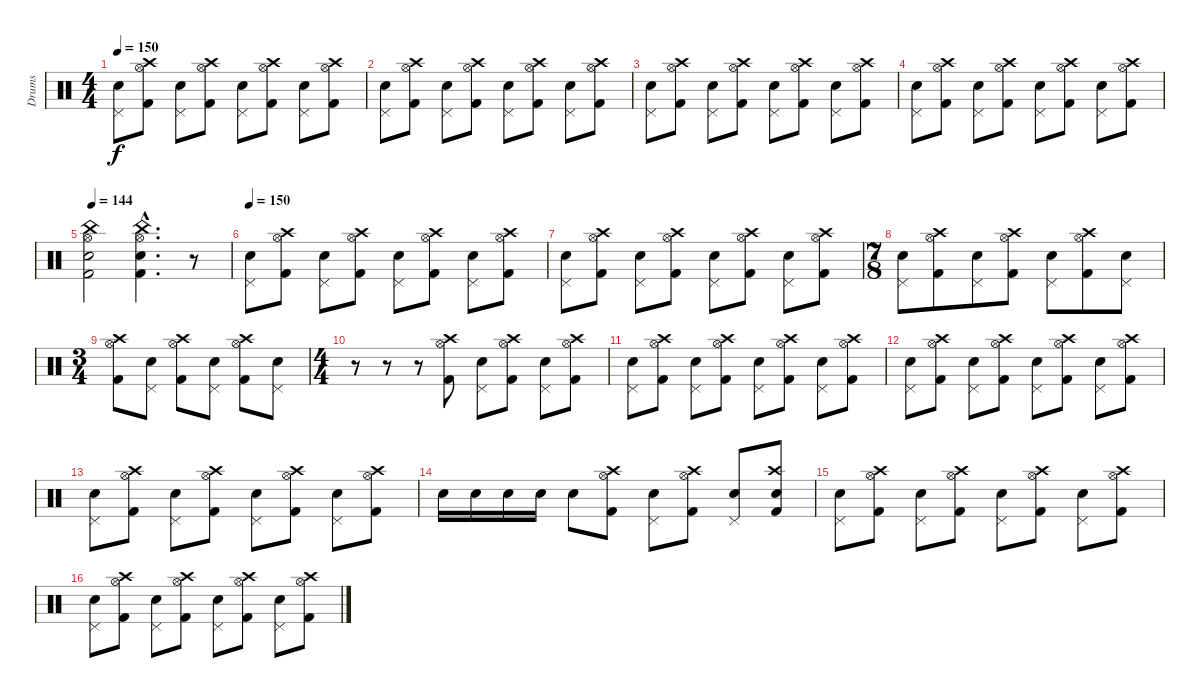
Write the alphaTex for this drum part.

\track ("Drums" "Drums") {instrument percussion}
\staff {score}
\articulation defaults
\ts (4 4)
\tempo 150
\clef neutral
\ks c
("Pedal Hi-Hat (hit)" "Snare (hit) 2").8{dy f} ("Crash high (hit)" "Hi-Hat (open)" "Kick (hit) 2").8 ("Pedal Hi-Hat (hit)" "Snare (hit) 2").8 ("Crash high (hit)" "Hi-Hat (open)" "Kick (hit) 2").8 ("Pedal Hi-Hat (hit)" "Snare (hit) 2").8 ("Crash high (hit)" "Hi-Hat (open)" "Kick (hit) 2").8 ("Pedal Hi-Hat (hit)" "Snare (hit) 2").8 ("Crash high (hit)" "Hi-Hat (open)" "Kick (hit) 2").8 |
("Pedal Hi-Hat (hit)" "Snare (hit) 2").8 ("Crash high (hit)" "Hi-Hat (open)" "Kick (hit) 2").8 ("Pedal Hi-Hat (hit)" "Snare (hit) 2").8 ("Crash high (hit)" "Hi-Hat (open)" "Kick (hit) 2").8 ("Pedal Hi-Hat (hit)" "Snare (hit) 2").8 ("Crash high (hit)" "Hi-Hat (open)" "Kick (hit) 2").8 ("Pedal Hi-Hat (hit)" "Snare (hit) 2").8 ("Crash high (hit)" "Hi-Hat (open)" "Kick (hit) 2").8 |
("Pedal Hi-Hat (hit)" "Snare (hit) 2").8 ("Crash high (hit)" "Hi-Hat (open)" "Kick (hit) 2").8 ("Pedal Hi-Hat (hit)" "Snare (hit) 2").8 ("Crash high (hit)" "Hi-Hat (open)" "Kick (hit) 2").8 ("Pedal Hi-Hat (hit)" "Snare (hit) 2").8 ("Crash high (hit)" "Hi-Hat (open)" "Kick (hit) 2").8 ("Pedal Hi-Hat (hit)" "Snare (hit) 2").8 ("Crash high (hit)" "Hi-Hat (open)" "Kick (hit) 2").8 |
("Pedal Hi-Hat (hit)" "Snare (hit) 2").8 ("Crash high (hit)" "Hi-Hat (open)" "Kick (hit) 2").8 ("Pedal Hi-Hat (hit)" "Snare (hit) 2").8 ("Crash high (hit)" "Hi-Hat (open)" "Kick (hit) 2").8 ("Pedal Hi-Hat (hit)" "Snare (hit) 2").8 ("Crash high (hit)" "Hi-Hat (open)" "Kick (hit) 2").8 ("Pedal Hi-Hat (hit)" "Snare (hit) 2").8 ("Crash high (hit)" "Hi-Hat (open)" "Kick (hit) 2").8 |
\tempo 144
("Snare (hit) 2" "Kick (hit) 2" "Hi-Hat (open)" "China (hit)").2 ("Snare (hit) 2"{hac} "Kick (hit) 2"{hac} "Hi-Hat (open)"{hac} "China (hit)"{hac}).4{d} r.8 |
\tempo 150
("Pedal Hi-Hat (hit)" "Snare (hit) 2").8 ("Crash high (hit)" "Hi-Hat (open)" "Kick (hit) 2").8 ("Pedal Hi-Hat (hit)" "Snare (hit) 2").8 ("Crash high (hit)" "Hi-Hat (open)" "Kick (hit) 2").8 ("Pedal Hi-Hat (hit)" "Snare (hit) 2").8 ("Crash high (hit)" "Hi-Hat (open)" "Kick (hit) 2").8 ("Pedal Hi-Hat (hit)" "Snare (hit) 2").8 ("Crash high (hit)" "Hi-Hat (open)" "Kick (hit) 2").8 |
("Pedal Hi-Hat (hit)" "Snare (hit) 2").8 ("Crash high (hit)" "Hi-Hat (open)" "Kick (hit) 2").8 ("Pedal Hi-Hat (hit)" "Snare (hit) 2").8 ("Crash high (hit)" "Hi-Hat (open)" "Kick (hit) 2").8 ("Pedal Hi-Hat (hit)" "Snare (hit) 2").8 ("Crash high (hit)" "Hi-Hat (open)" "Kick (hit) 2").8 ("Pedal Hi-Hat (hit)" "Snare (hit) 2").8 ("Crash high (hit)" "Hi-Hat (open)" "Kick (hit) 2").8 |
\ts (7 8)
("Pedal Hi-Hat (hit)" "Snare (hit) 2").8 ("Crash high (hit)" "Hi-Hat (open)" "Kick (hit) 2").8 ("Pedal Hi-Hat (hit)" "Snare (hit) 2").8 ("Crash high (hit)" "Hi-Hat (open)" "Kick (hit) 2").8 ("Pedal Hi-Hat (hit)" "Snare (hit) 2").8 ("Crash high (hit)" "Hi-Hat (open)" "Kick (hit) 2").8 ("Pedal Hi-Hat (hit)" "Snare (hit) 2").8 |
\ts (3 4)
("Crash high (hit)" "Hi-Hat (open)" "Kick (hit) 2").8 ("Pedal Hi-Hat (hit)" "Snare (hit) 2").8 ("Crash high (hit)" "Hi-Hat (open)" "Kick (hit) 2").8 ("Pedal Hi-Hat (hit)" "Snare (hit) 2").8 ("Crash high (hit)" "Hi-Hat (open)" "Kick (hit) 2").8 ("Pedal Hi-Hat (hit)" "Snare (hit) 2").8 |
\ts (4 4)
r.8 r.8 r.8 ("Crash high (hit)" "Hi-Hat (open)" "Kick (hit) 2").8 ("Pedal Hi-Hat (hit)" "Snare (hit) 2").8 ("Crash high (hit)" "Hi-Hat (open)" "Kick (hit) 2").8 ("Pedal Hi-Hat (hit)" "Snare (hit) 2").8 ("Crash high (hit)" "Hi-Hat (open)" "Kick (hit) 2").8 |
("Pedal Hi-Hat (hit)" "Snare (hit) 2").8 ("Crash high (hit)" "Hi-Hat (open)" "Kick (hit) 2").8 ("Pedal Hi-Hat (hit)" "Snare (hit) 2").8 ("Crash high (hit)" "Hi-Hat (open)" "Kick (hit) 2").8 ("Pedal Hi-Hat (hit)" "Snare (hit) 2").8 ("Crash high (hit)" "Hi-Hat (open)" "Kick (hit) 2").8 ("Pedal Hi-Hat (hit)" "Snare (hit) 2").8 ("Crash high (hit)" "Hi-Hat (open)" "Kick (hit) 2").8 |
("Pedal Hi-Hat (hit)" "Snare (hit) 2").8 ("Crash high (hit)" "Hi-Hat (open)" "Kick (hit) 2").8 ("Pedal Hi-Hat (hit)" "Snare (hit) 2").8 ("Crash high (hit)" "Hi-Hat (open)" "Kick (hit) 2").8 ("Pedal Hi-Hat (hit)" "Snare (hit) 2").8 ("Crash high (hit)" "Hi-Hat (open)" "Kick (hit) 2").8 ("Pedal Hi-Hat (hit)" "Snare (hit) 2").8 ("Crash high (hit)" "Hi-Hat (open)" "Kick (hit) 2").8 |
("Pedal Hi-Hat (hit)" "Snare (hit) 2").8 ("Crash high (hit)" "Hi-Hat (open)" "Kick (hit) 2").8 ("Pedal Hi-Hat (hit)" "Snare (hit) 2").8 ("Crash high (hit)" "Hi-Hat (open)" "Kick (hit) 2").8 ("Pedal Hi-Hat (hit)" "Snare (hit) 2").8 ("Crash high (hit)" "Hi-Hat (open)" "Kick (hit) 2").8 ("Pedal Hi-Hat (hit)" "Snare (hit) 2").8 ("Crash high (hit)" "Hi-Hat (open)" "Kick (hit) 2").8 |
"Snare (hit) 2".16 "Snare (hit) 2".16 "Snare (hit) 2".16 "Snare (hit) 2".16 "Snare (hit) 2".8 ("Crash high (hit)" "Hi-Hat (open)" "Kick (hit) 2").8 ("Pedal Hi-Hat (hit)" "Snare (hit) 2").8 ("Crash high (hit)" "Hi-Hat (open)" "Kick (hit) 2").8 ("Pedal Hi-Hat (hit)" "Snare (hit) 2").8 ("Crash high (hit)" "Snare (hit) 2" "Kick (hit) 2").8 |
("Pedal Hi-Hat (hit)" "Snare (hit) 2").8 ("Crash high (hit)" "Hi-Hat (open)" "Kick (hit) 2").8 ("Pedal Hi-Hat (hit)" "Snare (hit) 2").8 ("Crash high (hit)" "Hi-Hat (open)" "Kick (hit) 2").8 ("Pedal Hi-Hat (hit)" "Snare (hit) 2").8 ("Crash high (hit)" "Hi-Hat (open)" "Kick (hit) 2").8 ("Pedal Hi-Hat (hit)" "Snare (hit) 2").8 ("Crash high (hit)" "Hi-Hat (open)" "Kick (hit) 2").8 |
("Pedal Hi-Hat (hit)" "Snare (hit) 2").8 ("Crash high (hit)" "Hi-Hat (open)" "Kick (hit) 2").8 ("Pedal Hi-Hat (hit)" "Snare (hit) 2").8 ("Crash high (hit)" "Hi-Hat (open)" "Kick (hit) 2").8 ("Pedal Hi-Hat (hit)" "Snare (hit) 2").8 ("Crash high (hit)" "Hi-Hat (open)" "Kick (hit) 2").8 ("Pedal Hi-Hat (hit)" "Snare (hit) 2").8 ("Crash high (hit)" "Hi-Hat (open)" "Kick (hit) 2").8
